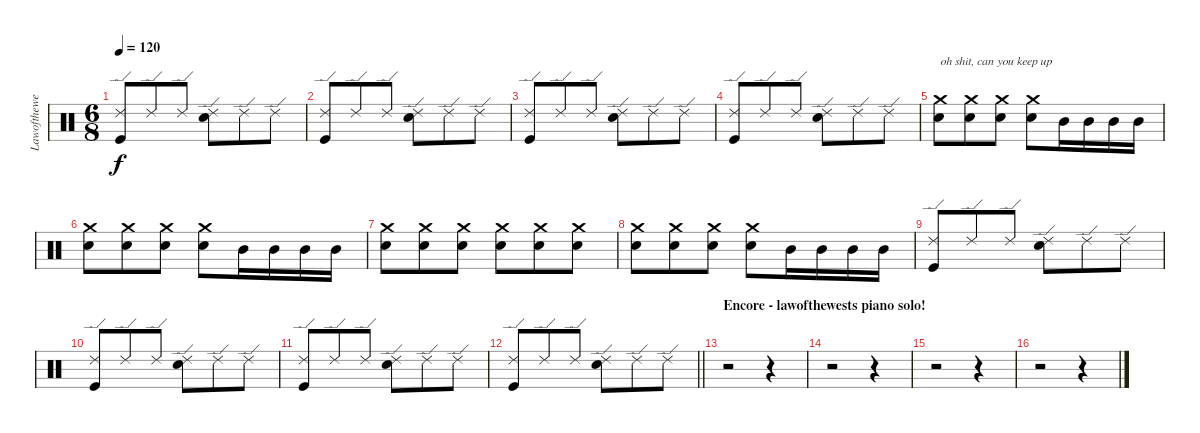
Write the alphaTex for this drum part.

\track ("Lawofthewest (drums)" "Lawofthewe") {instrument percussion}
\staff {score}
\articulation defaults
\ts (6 8)
\tempo 120
\clef neutral
\ks c
("Ride (edge) 2" "Kick (hit)").8{dy f} "Ride (edge) 2".8 "Ride (edge) 2".8 ("Ride (edge) 2" "Snare (hit) 2").8 "Ride (edge) 2".8 "Ride (edge) 2".8 |
("Ride (edge) 2" "Kick (hit)").8 "Ride (edge) 2".8 "Ride (edge) 2".8 ("Ride (edge) 2" "Snare (hit) 2").8 "Ride (edge) 2".8 "Ride (edge) 2".8 |
("Ride (edge) 2" "Kick (hit)").8 "Ride (edge) 2".8 "Ride (edge) 2".8 ("Ride (edge) 2" "Snare (hit) 2").8 "Ride (edge) 2".8 "Ride (edge) 2".8 |
("Ride (edge) 2" "Kick (hit)").8 "Ride (edge) 2".8 "Ride (edge) 2".8 ("Ride (edge) 2" "Snare (hit) 2").8 "Ride (edge) 2".8 "Ride (edge) 2".8 |
("Crash medium (hit)" "Snare (hit) 2").8{txt "oh shit, can you keep up"} ("Crash medium (hit)" "Snare (hit) 2").8 ("Crash medium (hit)" "Snare (hit) 2").8 ("Crash medium (hit)" "Snare (hit) 2").8 "Mid Tom (hit)".16 "Mid Tom (hit)".16 "Mid Tom (hit)".16 "Mid Tom (hit)".16 |
("Crash medium (hit)" "Snare (hit) 2").8 ("Crash medium (hit)" "Snare (hit) 2").8 ("Crash medium (hit)" "Snare (hit) 2").8 ("Crash medium (hit)" "Snare (hit) 2").8 "Mid Tom (hit)".16 "Mid Tom (hit)".16 "Mid Tom (hit)".16 "Mid Tom (hit)".16 |
("Crash medium (hit)" "Snare (hit) 2").8 ("Crash medium (hit)" "Snare (hit) 2").8 ("Crash medium (hit)" "Snare (hit) 2").8 ("Crash medium (hit)" "Snare (hit) 2").8 ("Crash medium (hit)" "Snare (hit) 2").8 ("Crash medium (hit)" "Snare (hit) 2").8 |
("Crash medium (hit)" "Snare (hit) 2").8 ("Crash medium (hit)" "Snare (hit) 2").8 ("Crash medium (hit)" "Snare (hit) 2").8 ("Crash medium (hit)" "Snare (hit) 2").8 "Mid Tom (hit)".16 "Mid Tom (hit)".16 "Mid Tom (hit)".16 "Mid Tom (hit)".16 |
("Ride (edge) 2" "Kick (hit)").8 "Ride (edge) 2".8 "Ride (edge) 2".8 ("Ride (edge) 2" "Snare (hit) 2").8 "Ride (edge) 2".8 "Ride (edge) 2".8 |
("Ride (edge) 2" "Kick (hit)").8 "Ride (edge) 2".8 "Ride (edge) 2".8 ("Ride (edge) 2" "Snare (hit) 2").8 "Ride (edge) 2".8 "Ride (edge) 2".8 |
("Ride (edge) 2" "Kick (hit)").8 "Ride (edge) 2".8 "Ride (edge) 2".8 ("Ride (edge) 2" "Snare (hit) 2").8 "Ride (edge) 2".8 "Ride (edge) 2".8 |
\barLineRight lightlight
("Ride (edge) 2" "Kick (hit)").8 "Ride (edge) 2".8 "Ride (edge) 2".8 ("Ride (edge) 2" "Snare (hit) 2").8 "Ride (edge) 2".8 "Ride (edge) 2".8 |
\section ("" "Encore - lawofthewests piano solo!")
r.2 r.4 |
r.2 r.4 |
r.2 r.4 |
r.2 r.4
